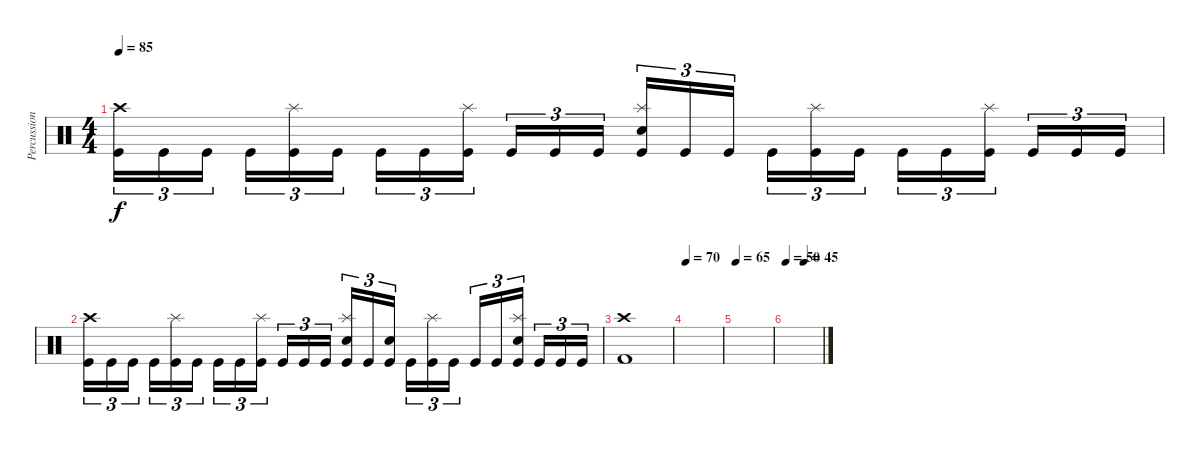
\track ("Percussion" "Percussion") {instrument percussion}
\staff {score}
\articulation defaults
\ts (4 4)
\tempo 85
\clef neutral
\ks c
("Crash high (hit)" "Kick (hit)").16{tu (3 2) dy f} "Kick (hit)".16{tu (3 2)} "Kick (hit)".16{tu (3 2)} "Kick (hit)".16{tu (3 2)} ("Splash (hit)" "Kick (hit)").16{tu (3 2)} "Kick (hit)".16{tu (3 2)} "Kick (hit)".16{tu (3 2)} "Kick (hit)".16{tu (3 2)} ("Splash (hit)" "Kick (hit)").16{tu (3 2)} "Kick (hit)".16{tu (3 2)} "Kick (hit)".16{tu (3 2)} "Kick (hit)".16{tu (3 2)} ("Splash (hit)" "Electric Snare (hit)" "Kick (hit)").16{tu (3 2)} "Kick (hit)".16{tu (3 2)} "Kick (hit)".16{tu (3 2)} "Kick (hit)".16{tu (3 2)} ("Splash (hit)" "Kick (hit)").16{tu (3 2)} "Kick (hit)".16{tu (3 2)} "Kick (hit)".16{tu (3 2)} "Kick (hit)".16{tu (3 2)} ("Splash (hit)" "Kick (hit)").16{tu (3 2)} "Kick (hit)".16{tu (3 2)} "Kick (hit)".16{tu (3 2)} "Kick (hit)".16{tu (3 2)} |
("Crash high (hit)" "Kick (hit)").16{tu (3 2)} "Kick (hit)".16{tu (3 2)} "Kick (hit)".16{tu (3 2)} "Kick (hit)".16{tu (3 2)} ("Splash (hit)" "Kick (hit)").16{tu (3 2)} "Kick (hit)".16{tu (3 2)} "Kick (hit)".16{tu (3 2)} "Kick (hit)".16{tu (3 2)} ("Splash (hit)" "Kick (hit)").16{tu (3 2)} "Kick (hit)".16{tu (3 2)} "Kick (hit)".16{tu (3 2)} "Kick (hit)".16{tu (3 2)} ("Splash (hit)" "Electric Snare (hit)" "Kick (hit)").16{tu (3 2)} "Kick (hit)".16{tu (3 2)} ("Electric Snare (hit)" "Kick (hit)").16{tu (3 2)} "Kick (hit)".16{tu (3 2)} ("Splash (hit)" "Kick (hit)").16{tu (3 2)} "Kick (hit)".16{tu (3 2)} "Kick (hit)".16{tu (3 2)} "Kick (hit)".16{tu (3 2)} ("Splash (hit)" "Electric Snare (hit)" "Kick (hit)").16{tu (3 2)} "Kick (hit)".16{tu (3 2)} "Kick (hit)".16{tu (3 2)} "Kick (hit)".16{tu (3 2)} |
("Crash high (hit)" "Kick (hit) 2").1 |
\tempo 70
|
\tempo 65
|
\tempo 50
\tempo (45 0.5)
